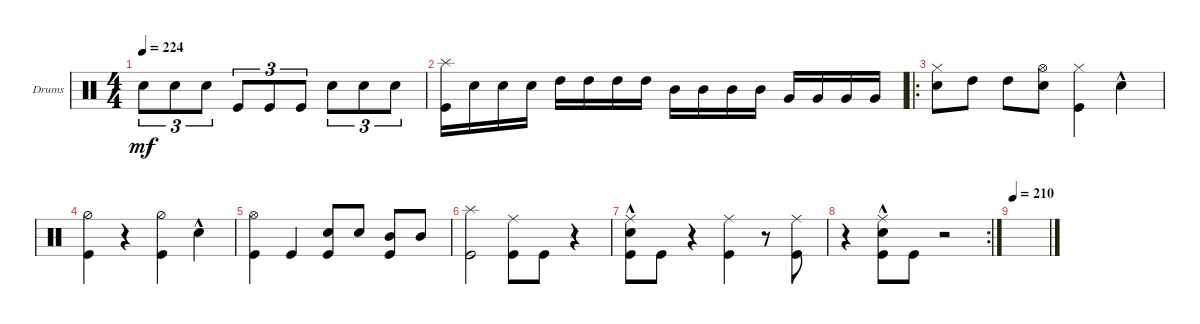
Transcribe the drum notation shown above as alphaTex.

\defaultSystemsLayout 4
\bracketExtendMode groupsimilarinstruments
\firstSystemTrackNameOrientation horizontal
\otherSystemsTrackNameOrientation horizontal
\track ("Drumkit" "Drums") {instrument percussion}
\staff {score}
\articulation defaults
\ts (4 4)
\tempo 224
\clef neutral
\ks c "Snare (hit) 2".8{tu (3 2) dy mf} "Snare (hit) 2".8{tu (3 2)} "Snare (hit) 2".8{tu (3 2)} "Kick (hit)".8{tu (3 2)} "Kick (hit)".8{tu (3 2)} "Kick (hit)".8{tu (3 2)} "Snare (hit) 2".8{tu (3 2)} "Snare (hit) 2".8{tu (3 2)} "Snare (hit) 2".8{tu (3 2)}
|
("Splash (hit)" "Kick (hit)").16 "Snare (hit) 2".16 "Snare (hit) 2".16 "Snare (hit) 2".16 "High Tom (hit)".16 "High Tom (hit)".16 "High Tom (hit)".16 "High Tom (hit)".16 "Mid Tom (hit)".16 "Mid Tom (hit)".16 "Mid Tom (hit)".16 "Mid Tom (hit)".16 "Very Low Tom (hit)".16 "Very Low Tom (hit)".16 "Very Low Tom (hit)".16 "Very Low Tom (hit)".16 |
\ro
\scale
0.377778 ("Snare (hit) 2" "Hi-Hat (closed)").8 "High Tom (hit)".8 "High Tom (hit)".8 ("Snare (hit) 2" "Hi-Hat (open)").8 ("Kick (hit)" "Hi-Hat (closed)").4 "Snare (hit) 2"{hac}.4 |
\scale
0.333333 ("Kick (hit)" "Hi-Hat (half)").4 r.4 ("Kick (hit)" "Hi-Hat (half)").4 "Snare (hit) 2"{hac}.4 |
\scale
0.333333 ("Kick (hit)" "Hi-Hat (open)").4 "Kick (hit)".4 ("Snare (hit) 2" "Kick (hit)").8 "Snare (hit) 2".8 ("Mid Tom (hit)" "Kick (hit)").8 "Mid Tom (hit)".8 |
\scale
0.333333 ("Kick (hit)" "Splash (hit)").2 ("Kick (hit)" "Ride (middle)").8 "Kick (hit)".8 r.4 |
\scale
0.321839 ("Kick (hit)" "Ride (middle)" "Snare (hit) 2"{hac}).8 "Kick (hit)".8 r.4 ("Kick (hit)" "Ride (middle)").4 r.8 ("Kick (hit)" "Ride (middle)").8 |
\rc 2
\scale
0.356322 r.4 ("Kick (hit)" "Ride (middle)" "Snare (hit) 2"{hac}).8 "Kick (hit)".8 r.2 |
\tempo 210
\scale
0.321839 |
\scale
0.333333 |
\scale
0.333333 |
\scale
0.333333 |
\scale
0.333333 |
\scale
0.333333 |
\scale
0.333333 |
\scale
0.333333
